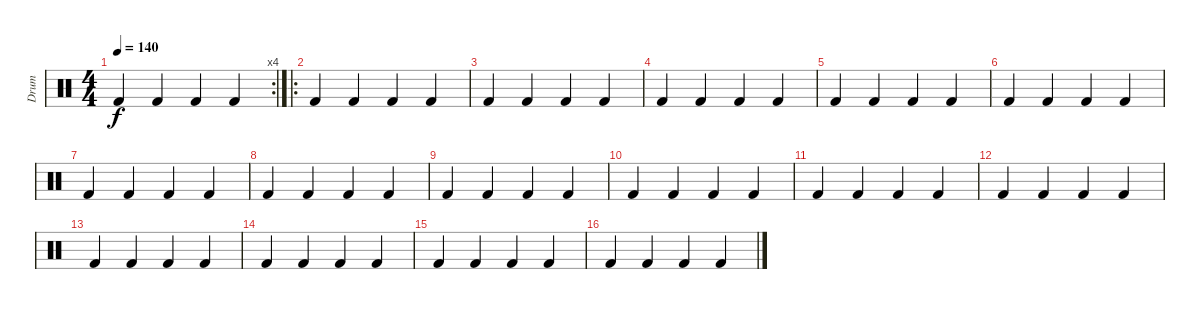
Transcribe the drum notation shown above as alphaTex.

\track ("Drum" "Drum") {instrument percussion}
\staff {score}
\articulation defaults
\rc 4
\ts (4 4)
\tempo 140
\clef neutral
\ks c "Kick (hit) 2".4{dy f} "Kick (hit) 2".4 "Kick (hit) 2".4 "Kick (hit) 2".4
|
\ro "Kick (hit) 2".4 "Kick (hit) 2".4 "Kick (hit) 2".4 "Kick (hit) 2".4
|
"Kick (hit) 2".4 "Kick (hit) 2".4 "Kick (hit) 2".4 "Kick (hit) 2".4 |
"Kick (hit) 2".4 "Kick (hit) 2".4 "Kick (hit) 2".4 "Kick (hit) 2".4 |
"Kick (hit) 2".4 "Kick (hit) 2".4 "Kick (hit) 2".4 "Kick (hit) 2".4 |
"Kick (hit) 2".4 "Kick (hit) 2".4 "Kick (hit) 2".4 "Kick (hit) 2".4 |
"Kick (hit) 2".4 "Kick (hit) 2".4 "Kick (hit) 2".4 "Kick (hit) 2".4 |
"Kick (hit) 2".4 "Kick (hit) 2".4 "Kick (hit) 2".4 "Kick (hit) 2".4 |
"Kick (hit) 2".4 "Kick (hit) 2".4 "Kick (hit) 2".4 "Kick (hit) 2".4 |
"Kick (hit) 2".4 "Kick (hit) 2".4 "Kick (hit) 2".4 "Kick (hit) 2".4 |
"Kick (hit) 2".4 "Kick (hit) 2".4 "Kick (hit) 2".4 "Kick (hit) 2".4 |
"Kick (hit) 2".4 "Kick (hit) 2".4 "Kick (hit) 2".4 "Kick (hit) 2".4 |
"Kick (hit) 2".4 "Kick (hit) 2".4 "Kick (hit) 2".4 "Kick (hit) 2".4 |
"Kick (hit) 2".4 "Kick (hit) 2".4 "Kick (hit) 2".4 "Kick (hit) 2".4 |
"Kick (hit) 2".4 "Kick (hit) 2".4 "Kick (hit) 2".4 "Kick (hit) 2".4 |
"Kick (hit) 2".4 "Kick (hit) 2".4 "Kick (hit) 2".4 "Kick (hit) 2".4
